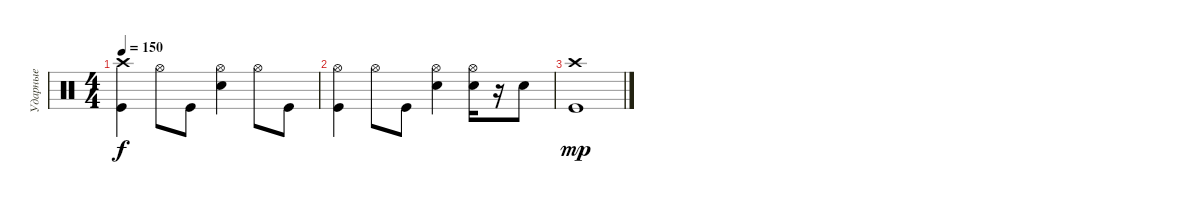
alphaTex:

\track ("Ударные" "Ударные") {instrument percussion}
\staff {score}
\articulation defaults
\ts (4 4)
\tempo 150
\clef neutral
\ks c
("Crash high (hit)" "Kick (hit)").4{dy f} "Hi-Hat (open)".8 "Kick (hit)".8 ("Hi-Hat (open)" "Snare (hit) 2").4 "Hi-Hat (open)".8 "Kick (hit)".8 |
("Hi-Hat (open)" "Kick (hit)").4 "Hi-Hat (open)".8 "Kick (hit)".8 ("Hi-Hat (open)" "Snare (hit) 2").4 ("Hi-Hat (open)" "Snare (hit) 2").16 r.16 "Snare (hit) 2".8 |
("Crash high (hit)" "Kick (hit)").1{dy mp}
